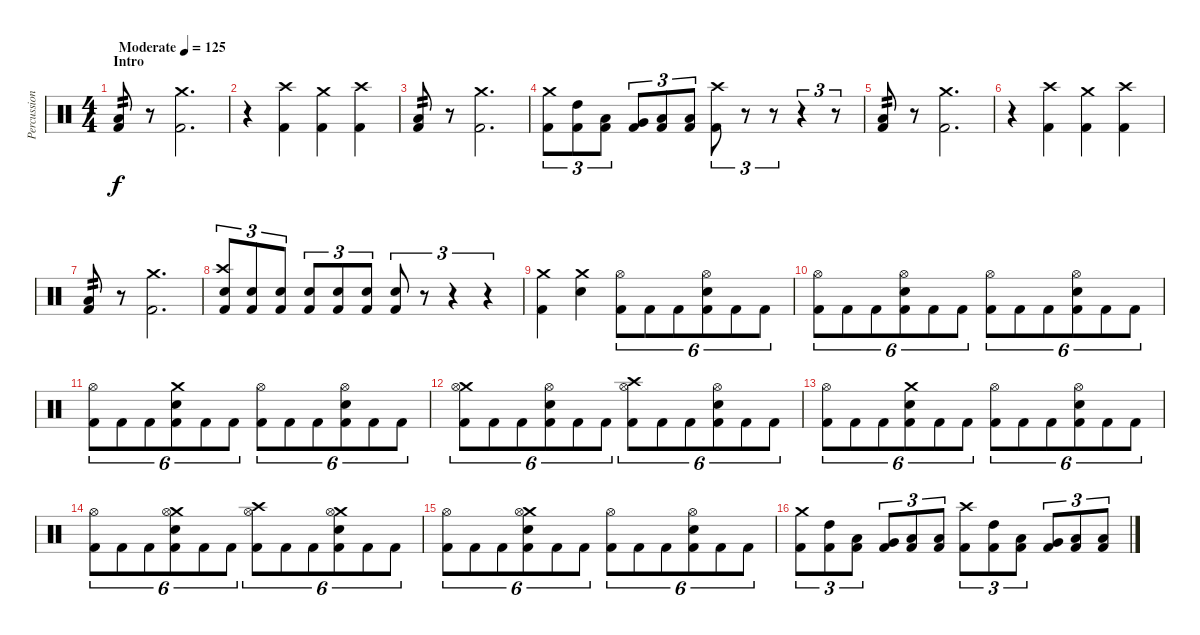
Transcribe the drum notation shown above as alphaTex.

\track ("Percussion" "Percussion") {instrument percussion}
\staff {score}
\articulation defaults
\ts (4 4)
\section ("" "Intro")
\tempo (125 "Moderate")
\clef neutral
\ks c
("Low Tom (hit)" "Kick (hit) 2").8{tp 2 dy f} r.8 ("Crash medium (hit)" "Kick (hit) 2").2{d} |
r.4 ("Crash high (hit)" "Kick (hit) 2").4 ("Crash medium (hit)" "Kick (hit) 2").4 ("Crash high (hit)" "Kick (hit) 2").4 |
("Low Tom (hit)" "Kick (hit) 2").8{tp 2} r.8 ("Crash medium (hit)" "Kick (hit) 2").2{d} |
("Crash medium (hit)" "Kick (hit) 2").8{tu (3 2)} ("High Tom (hit)" "Kick (hit) 2").8{tu (3 2)} ("Low Tom (hit)" "Kick (hit) 2").8{tu (3 2)} ("Very Low Tom (hit)" "Kick (hit) 2").8{tu (3 2)} ("Low Floor Tom (hit)" "Kick (hit) 2").8{tu (3 2)} ("Low Floor Tom (hit)" "Kick (hit) 2").8{tu (3 2)} ("Crash high (hit)" "Kick (hit) 2").8{tu (3 2)} r.8{tu (3 2)} r.8{tu (3 2)} r.4{tu (3 2)} r.8{tu (3 2)} |
("Low Tom (hit)" "Kick (hit) 2").8{tp 2} r.8 ("Crash medium (hit)" "Kick (hit) 2").2{d} |
r.4 ("Crash high (hit)" "Kick (hit) 2").4 ("Crash medium (hit)" "Kick (hit) 2").4 ("Crash high (hit)" "Kick (hit) 2").4 |
("Low Tom (hit)" "Kick (hit) 2").8{tp 2} r.8 ("Crash medium (hit)" "Kick (hit) 2").2{d} |
("Crash high (hit)" "Electric Snare (hit)" "Kick (hit) 2").8{tu (3 2)} ("Electric Snare (hit)" "Kick (hit) 2").8{tu (3 2)} ("Electric Snare (hit)" "Kick (hit) 2").8{tu (3 2)} ("Electric Snare (hit)" "Kick (hit) 2").8{tu (3 2)} ("Electric Snare (hit)" "Kick (hit) 2").8{tu (3 2)} ("Electric Snare (hit)" "Kick (hit) 2").8{tu (3 2)} ("Electric Snare (hit)" "Kick (hit) 2").8{tu (3 2)} r.8{tu (3 2)} r.4{tu (3 2)} r.4{tu (3 2)} |
("Crash medium (hit)" "Kick (hit) 2").4 ("Crash medium (hit)" "Snare (hit) 2").4 ("Hi-Hat (open)" "Kick (hit) 2").8{tu (6 4)} "Kick (hit) 2".8{tu (6 4)} "Kick (hit) 2".8{tu (6 4)} ("Hi-Hat (open)" "Snare (hit) 2" "Kick (hit) 2").8{tu (6 4)} "Kick (hit) 2".8{tu (6 4)} "Kick (hit) 2".8{tu (6 4)} |
("Hi-Hat (open)" "Kick (hit) 2").8{tu (6 4)} "Kick (hit) 2".8{tu (6 4)} "Kick (hit) 2".8{tu (6 4)} ("Hi-Hat (open)" "Snare (hit) 2" "Kick (hit) 2").8{tu (6 4)} "Kick (hit) 2".8{tu (6 4)} "Kick (hit) 2".8{tu (6 4)} ("Hi-Hat (open)" "Kick (hit) 2").8{tu (6 4)} "Kick (hit) 2".8{tu (6 4)} "Kick (hit) 2".8{tu (6 4)} ("Hi-Hat (open)" "Snare (hit) 2" "Kick (hit) 2").8{tu (6 4)} "Kick (hit) 2".8{tu (6 4)} "Kick (hit) 2".8{tu (6 4)} |
("Hi-Hat (open)" "Kick (hit) 2").8{tu (6 4)} "Kick (hit) 2".8{tu (6 4)} "Kick (hit) 2".8{tu (6 4)} ("Crash medium (hit)" "Snare (hit) 2" "Kick (hit) 2").8{tu (6 4)} "Kick (hit) 2".8{tu (6 4)} "Kick (hit) 2".8{tu (6 4)} ("Hi-Hat (open)" "Kick (hit) 2").8{tu (6 4)} "Kick (hit) 2".8{tu (6 4)} "Kick (hit) 2".8{tu (6 4)} ("Hi-Hat (open)" "Snare (hit) 2" "Kick (hit) 2").8{tu (6 4)} "Kick (hit) 2".8{tu (6 4)} "Kick (hit) 2".8{tu (6 4)} |
("Crash medium (hit)" "Hi-Hat (open)" "Kick (hit) 2").8{tu (6 4)} "Kick (hit) 2".8{tu (6 4)} "Kick (hit) 2".8{tu (6 4)} ("Hi-Hat (open)" "Snare (hit) 2" "Kick (hit) 2").8{tu (6 4)} "Kick (hit) 2".8{tu (6 4)} "Kick (hit) 2".8{tu (6 4)} ("Crash high (hit)" "Hi-Hat (open)" "Kick (hit) 2").8{tu (6 4)} "Kick (hit) 2".8{tu (6 4)} "Kick (hit) 2".8{tu (6 4)} ("Hi-Hat (open)" "Snare (hit) 2" "Kick (hit) 2").8{tu (6 4)} "Kick (hit) 2".8{tu (6 4)} "Kick (hit) 2".8{tu (6 4)} |
("Hi-Hat (open)" "Kick (hit) 2").8{tu (6 4)} "Kick (hit) 2".8{tu (6 4)} "Kick (hit) 2".8{tu (6 4)} ("Crash medium (hit)" "Snare (hit) 2" "Kick (hit) 2").8{tu (6 4)} "Kick (hit) 2".8{tu (6 4)} "Kick (hit) 2".8{tu (6 4)} ("Hi-Hat (open)" "Kick (hit) 2").8{tu (6 4)} "Kick (hit) 2".8{tu (6 4)} "Kick (hit) 2".8{tu (6 4)} ("Hi-Hat (open)" "Snare (hit) 2" "Kick (hit) 2").8{tu (6 4)} "Kick (hit) 2".8{tu (6 4)} "Kick (hit) 2".8{tu (6 4)} |
("Hi-Hat (open)" "Kick (hit) 2").8{tu (6 4)} "Kick (hit) 2".8{tu (6 4)} "Kick (hit) 2".8{tu (6 4)} ("Crash medium (hit)" "Hi-Hat (open)" "Snare (hit) 2" "Kick (hit) 2").8{tu (6 4)} "Kick (hit) 2".8{tu (6 4)} "Kick (hit) 2".8{tu (6 4)} ("Crash high (hit)" "Hi-Hat (open)" "Kick (hit) 2").8{tu (6 4)} "Kick (hit) 2".8{tu (6 4)} "Kick (hit) 2".8{tu (6 4)} ("Crash medium (hit)" "Hi-Hat (open)" "Snare (hit) 2" "Kick (hit) 2").8{tu (6 4)} "Kick (hit) 2".8{tu (6 4)} "Kick (hit) 2".8{tu (6 4)} |
("Hi-Hat (open)" "Kick (hit) 2").8{tu (6 4)} "Kick (hit) 2".8{tu (6 4)} "Kick (hit) 2".8{tu (6 4)} ("Crash medium (hit)" "Hi-Hat (open)" "Snare (hit) 2" "Kick (hit) 2").8{tu (6 4)} "Kick (hit) 2".8{tu (6 4)} "Kick (hit) 2".8{tu (6 4)} ("Hi-Hat (open)" "Kick (hit) 2").8{tu (6 4)} "Kick (hit) 2".8{tu (6 4)} "Kick (hit) 2".8{tu (6 4)} ("Hi-Hat (open)" "Snare (hit) 2" "Kick (hit) 2").8{tu (6 4)} "Kick (hit) 2".8{tu (6 4)} "Kick (hit) 2".8{tu (6 4)} |
("Crash medium (hit)" "Kick (hit) 2").8{tu (3 2)} ("High Tom (hit)" "Kick (hit) 2").8{tu (3 2)} ("Low Tom (hit)" "Kick (hit) 2").8{tu (3 2)} ("Very Low Tom (hit)" "Kick (hit) 2").8{tu (3 2)} ("Low Floor Tom (hit)" "Kick (hit) 2").8{tu (3 2)} ("Low Floor Tom (hit)" "Kick (hit) 2").8{tu (3 2)} ("Crash high (hit)" "Kick (hit) 2").8{tu (3 2)} ("High Tom (hit)" "Kick (hit) 2").8{tu (3 2)} ("Low Tom (hit)" "Kick (hit) 2").8{tu (3 2)} ("Very Low Tom (hit)" "Kick (hit) 2").8{tu (3 2)} ("Low Floor Tom (hit)" "Kick (hit) 2").8{tu (3 2)} ("Low Floor Tom (hit)" "Kick (hit) 2").8{tu (3 2)}
